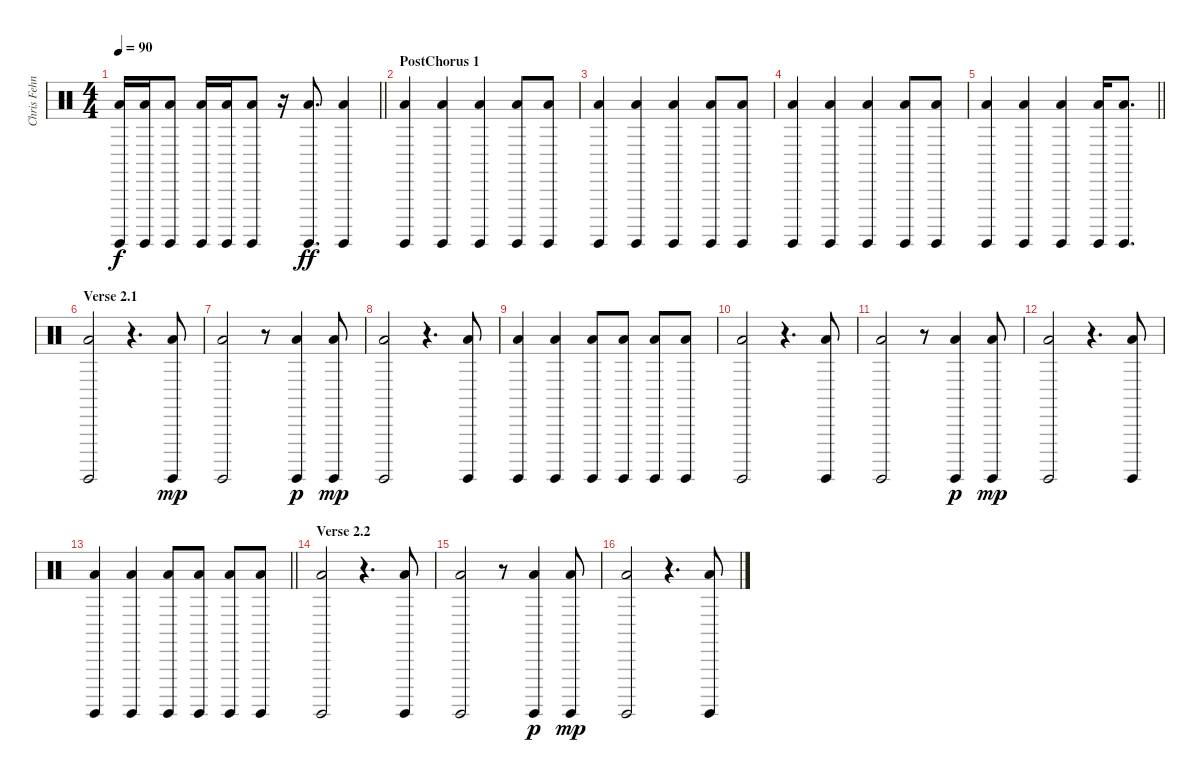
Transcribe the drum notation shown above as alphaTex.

\track ("Chris Fehn" "Chris Fehn") {instrument percussion}
\staff {score}
\articulation defaults
\ts (4 4)
\tempo 90
\clef neutral
\barLineRight lightlight
\ks c
("Surdo (hit)" "Low Floor Tom (hit)").16{dy f} ("Surdo (hit)" "Low Floor Tom (hit)").16 ("Surdo (hit)" "Low Floor Tom (hit)").8 ("Surdo (hit)" "Low Floor Tom (hit)").16 ("Surdo (hit)" "Low Floor Tom (hit)").16 ("Surdo (hit)" "Low Floor Tom (hit)").8 r.16 ("Surdo (hit)" "Low Floor Tom (hit)").8{d dy ff} ("Surdo (hit)" "Low Floor Tom (hit)").4 |
\section ("" "PostChorus 1")
("Surdo (hit)" "Low Floor Tom (hit)").4 ("Surdo (hit)" "Low Floor Tom (hit)").4 ("Surdo (hit)" "Low Floor Tom (hit)").4 ("Surdo (hit)" "Low Floor Tom (hit)").8 ("Surdo (hit)" "Low Floor Tom (hit)").8 |
("Surdo (hit)" "Low Floor Tom (hit)").4 ("Surdo (hit)" "Low Floor Tom (hit)").4 ("Surdo (hit)" "Low Floor Tom (hit)").4 ("Surdo (hit)" "Low Floor Tom (hit)").8 ("Surdo (hit)" "Low Floor Tom (hit)").8 |
("Surdo (hit)" "Low Floor Tom (hit)").4 ("Surdo (hit)" "Low Floor Tom (hit)").4 ("Surdo (hit)" "Low Floor Tom (hit)").4 ("Surdo (hit)" "Low Floor Tom (hit)").8 ("Surdo (hit)" "Low Floor Tom (hit)").8 |
\barLineRight lightlight
("Surdo (hit)" "Low Floor Tom (hit)").4 ("Surdo (hit)" "Low Floor Tom (hit)").4 ("Surdo (hit)" "Low Floor Tom (hit)").4 ("Surdo (hit)" "Low Floor Tom (hit)").16 ("Surdo (hit)" "Low Floor Tom (hit)").8{d} |
\section ("" "Verse 2.1")
("Surdo (hit)" "Low Floor Tom (hit)").2 r.4{d} ("Surdo (hit)" "Low Floor Tom (hit)").8{dy mp} |
("Surdo (hit)" "Low Floor Tom (hit)").2 r.8 ("Surdo (hit)" "Low Floor Tom (hit)").4{dy p} ("Surdo (hit)" "Low Floor Tom (hit)").8{dy mp} |
("Surdo (hit)" "Low Floor Tom (hit)").2 r.4{d} ("Surdo (hit)" "Low Floor Tom (hit)").8 |
("Surdo (hit)" "Low Floor Tom (hit)").4 ("Surdo (hit)" "Low Floor Tom (hit)").4 ("Surdo (hit)" "Low Floor Tom (hit)").8 ("Surdo (hit)" "Low Floor Tom (hit)").8 ("Surdo (hit)" "Low Floor Tom (hit)").8 ("Surdo (hit)" "Low Floor Tom (hit)").8 |
("Surdo (hit)" "Low Floor Tom (hit)").2 r.4{d} ("Surdo (hit)" "Low Floor Tom (hit)").8 |
("Surdo (hit)" "Low Floor Tom (hit)").2 r.8 ("Surdo (hit)" "Low Floor Tom (hit)").4{dy p} ("Surdo (hit)" "Low Floor Tom (hit)").8{dy mp} |
("Surdo (hit)" "Low Floor Tom (hit)").2 r.4{d} ("Surdo (hit)" "Low Floor Tom (hit)").8 |
\barLineRight lightlight
("Surdo (hit)" "Low Floor Tom (hit)").4 ("Surdo (hit)" "Low Floor Tom (hit)").4 ("Surdo (hit)" "Low Floor Tom (hit)").8 ("Surdo (hit)" "Low Floor Tom (hit)").8 ("Surdo (hit)" "Low Floor Tom (hit)").8 ("Surdo (hit)" "Low Floor Tom (hit)").8 |
\section ("" "Verse 2.2")
("Surdo (hit)" "Low Floor Tom (hit)").2 r.4{d} ("Surdo (hit)" "Low Floor Tom (hit)").8 |
("Surdo (hit)" "Low Floor Tom (hit)").2 r.8 ("Surdo (hit)" "Low Floor Tom (hit)").4{dy p} ("Surdo (hit)" "Low Floor Tom (hit)").8{dy mp} |
("Surdo (hit)" "Low Floor Tom (hit)").2 r.4{d} ("Surdo (hit)" "Low Floor Tom (hit)").8
